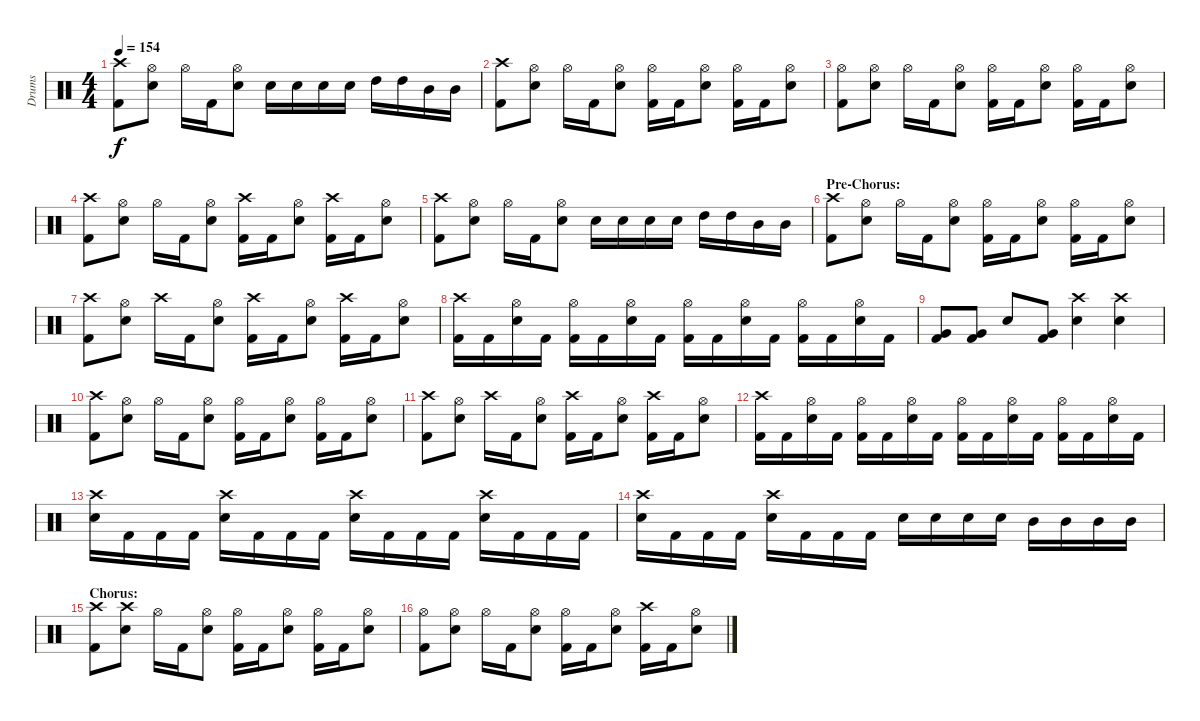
\track ("Drums" "Drums") {instrument percussion}
\staff {score}
\articulation defaults
\ts (4 4)
\tempo 154
\clef neutral
\ks c
("Crash high (hit)" "Kick (hit) 2").8{dy f} ("Hi-Hat (open)" "Snare (hit) 2").8 "Hi-Hat (open)".16 "Kick (hit) 2".16 ("Hi-Hat (open)" "Snare (hit) 2").8 "Snare (hit) 2".16 "Snare (hit) 2".16 "Snare (hit) 2".16 "Snare (hit) 2".16 "High Tom (hit)".16 "High Tom (hit)".16 "Mid Tom (hit)".16 "Mid Tom (hit)".16 |
("Crash high (hit)" "Kick (hit) 2").8 ("Hi-Hat (open)" "Snare (hit) 2").8 "Hi-Hat (open)".16 "Kick (hit) 2".16 ("Hi-Hat (open)" "Snare (hit) 2").8 ("Hi-Hat (open)" "Kick (hit) 2").16 "Kick (hit) 2".16 ("Hi-Hat (open)" "Snare (hit) 2").8 ("Hi-Hat (open)" "Kick (hit) 2").16 "Kick (hit) 2".16 ("Hi-Hat (open)" "Snare (hit) 2").8 |
("Hi-Hat (open)" "Kick (hit) 2").8 ("Hi-Hat (open)" "Snare (hit) 2").8 "Hi-Hat (open)".16 "Kick (hit) 2".16 ("Hi-Hat (open)" "Snare (hit) 2").8 ("Hi-Hat (open)" "Kick (hit) 2").16 "Kick (hit) 2".16 ("Hi-Hat (open)" "Snare (hit) 2").8 ("Hi-Hat (open)" "Kick (hit) 2").16 "Kick (hit) 2".16 ("Hi-Hat (open)" "Snare (hit) 2").8 |
("Crash high (hit)" "Kick (hit) 2").8 ("Hi-Hat (open)" "Snare (hit) 2").8 "Hi-Hat (open)".16 "Kick (hit) 2".16 ("Hi-Hat (open)" "Snare (hit) 2").8 ("Crash high (hit)" "Kick (hit) 2").16 "Kick (hit) 2".16 ("Hi-Hat (open)" "Snare (hit) 2").8 ("Crash high (hit)" "Kick (hit) 2").16 "Kick (hit) 2".16 ("Hi-Hat (open)" "Snare (hit) 2").8 |
("Crash high (hit)" "Kick (hit) 2").8 ("Hi-Hat (open)" "Snare (hit) 2").8 "Hi-Hat (open)".16 "Kick (hit) 2".16 ("Hi-Hat (open)" "Snare (hit) 2").8 "Snare (hit) 2".16 "Snare (hit) 2".16 "Snare (hit) 2".16 "Snare (hit) 2".16 "High Tom (hit)".16 "High Tom (hit)".16 "Mid Tom (hit)".16 "Mid Tom (hit)".16 |
\section ("" "Pre-Chorus:")
("Crash high (hit)" "Kick (hit) 2").8 ("Hi-Hat (open)" "Snare (hit) 2").8 "Hi-Hat (open)".16 "Kick (hit) 2".16 ("Hi-Hat (open)" "Snare (hit) 2").8 ("Hi-Hat (open)" "Kick (hit) 2").16 "Kick (hit) 2".16 ("Hi-Hat (open)" "Snare (hit) 2").8 ("Hi-Hat (open)" "Kick (hit) 2").16 "Kick (hit) 2".16 ("Hi-Hat (open)" "Snare (hit) 2").8 |
("Crash high (hit)" "Kick (hit) 2").8 ("Hi-Hat (open)" "Snare (hit) 2").8 "Crash high (hit)".16 "Kick (hit) 2".16 ("Hi-Hat (open)" "Snare (hit) 2").8 ("Crash high (hit)" "Kick (hit) 2").16 "Kick (hit) 2".16 ("Hi-Hat (open)" "Snare (hit) 2").8 ("Crash high (hit)" "Kick (hit) 2").16 "Kick (hit) 2".16 ("Hi-Hat (open)" "Snare (hit) 2").8 |
("Crash high (hit)" "Kick (hit) 2").16 "Kick (hit) 2".16 ("Hi-Hat (open)" "Snare (hit) 2").16 "Kick (hit) 2".16 ("Hi-Hat (open)" "Kick (hit) 2").16 "Kick (hit) 2".16 ("Hi-Hat (open)" "Snare (hit) 2").16 "Kick (hit) 2".16 ("Hi-Hat (open)" "Kick (hit) 2").16 "Kick (hit) 2".16 ("Hi-Hat (open)" "Snare (hit) 2").16 "Kick (hit) 2".16 ("Hi-Hat (open)" "Kick (hit) 2").16 "Kick (hit) 2".16 ("Hi-Hat (open)" "Snare (hit) 2").16 "Kick (hit) 2".16 |
("Very Low Tom (hit)" "Kick (hit) 2").8 ("Very Low Tom (hit)" "Kick (hit) 2").8 "Snare (hit) 2".8 ("Very Low Tom (hit)" "Kick (hit) 2").8 ("Crash high (hit)" "Snare (hit) 2").4 ("Crash high (hit)" "Snare (hit) 2").4 |
("Crash high (hit)" "Kick (hit) 2").8 ("Hi-Hat (open)" "Snare (hit) 2").8 "Hi-Hat (open)".16 "Kick (hit) 2".16 ("Hi-Hat (open)" "Snare (hit) 2").8 ("Hi-Hat (open)" "Kick (hit) 2").16 "Kick (hit) 2".16 ("Hi-Hat (open)" "Snare (hit) 2").8 ("Hi-Hat (open)" "Kick (hit) 2").16 "Kick (hit) 2".16 ("Hi-Hat (open)" "Snare (hit) 2").8 |
("Crash high (hit)" "Kick (hit) 2").8 ("Hi-Hat (open)" "Snare (hit) 2").8 "Crash high (hit)".16 "Kick (hit) 2".16 ("Hi-Hat (open)" "Snare (hit) 2").8 ("Crash high (hit)" "Kick (hit) 2").16 "Kick (hit) 2".16 ("Hi-Hat (open)" "Snare (hit) 2").8 ("Crash high (hit)" "Kick (hit) 2").16 "Kick (hit) 2".16 ("Hi-Hat (open)" "Snare (hit) 2").8 |
("Crash high (hit)" "Kick (hit) 2").16 "Kick (hit) 2".16 ("Hi-Hat (open)" "Snare (hit) 2").16 "Kick (hit) 2".16 ("Hi-Hat (open)" "Kick (hit) 2").16 "Kick (hit) 2".16 ("Hi-Hat (open)" "Snare (hit) 2").16 "Kick (hit) 2".16 ("Hi-Hat (open)" "Kick (hit) 2").16 "Kick (hit) 2".16 ("Hi-Hat (open)" "Snare (hit) 2").16 "Kick (hit) 2".16 ("Hi-Hat (open)" "Kick (hit) 2").16 "Kick (hit) 2".16 ("Hi-Hat (open)" "Snare (hit) 2").16 "Kick (hit) 2".16 |
("Crash high (hit)" "Snare (hit) 2").16 "Kick (hit) 2".16 "Kick (hit) 2".16 "Kick (hit) 2".16 ("Crash high (hit)" "Snare (hit) 2").16 "Kick (hit) 2".16 "Kick (hit) 2".16 "Kick (hit) 2".16 ("Crash high (hit)" "Snare (hit) 2").16 "Kick (hit) 2".16 "Kick (hit) 2".16 "Kick (hit) 2".16 ("Crash high (hit)" "Snare (hit) 2").16 "Kick (hit) 2".16 "Kick (hit) 2".16 "Kick (hit) 2".16 |
("Crash high (hit)" "Snare (hit) 2").16 "Kick (hit) 2".16 "Kick (hit) 2".16 "Kick (hit) 2".16 ("Crash high (hit)" "Snare (hit) 2").16 "Kick (hit) 2".16 "Kick (hit) 2".16 "Kick (hit) 2".16 "Snare (hit) 2".16 "Snare (hit) 2".16 "Snare (hit) 2".16 "Snare (hit) 2".16 "Mid Tom (hit)".16 "Mid Tom (hit)".16 "Mid Tom (hit)".16 "Mid Tom (hit)".16 |
\section ("" "Chorus:")
("Crash high (hit)" "Kick (hit) 2").8 ("Crash high (hit)" "Snare (hit) 2").8 "Hi-Hat (open)".16 "Kick (hit) 2".16 ("Hi-Hat (open)" "Snare (hit) 2").8 ("Hi-Hat (open)" "Kick (hit) 2").16 "Kick (hit) 2".16 ("Hi-Hat (open)" "Snare (hit) 2").8 ("Hi-Hat (open)" "Kick (hit) 2").16 "Kick (hit) 2".16 ("Hi-Hat (open)" "Snare (hit) 2").8 |
("Hi-Hat (open)" "Kick (hit) 2").8 ("Hi-Hat (open)" "Snare (hit) 2").8 "Hi-Hat (open)".16 "Kick (hit) 2".16 ("Hi-Hat (open)" "Snare (hit) 2").8 ("Hi-Hat (open)" "Kick (hit) 2").16 "Kick (hit) 2".16 ("Hi-Hat (open)" "Snare (hit) 2").8 ("Crash high (hit)" "Kick (hit) 2").16 "Kick (hit) 2".16 ("Hi-Hat (open)" "Snare (hit) 2").8
